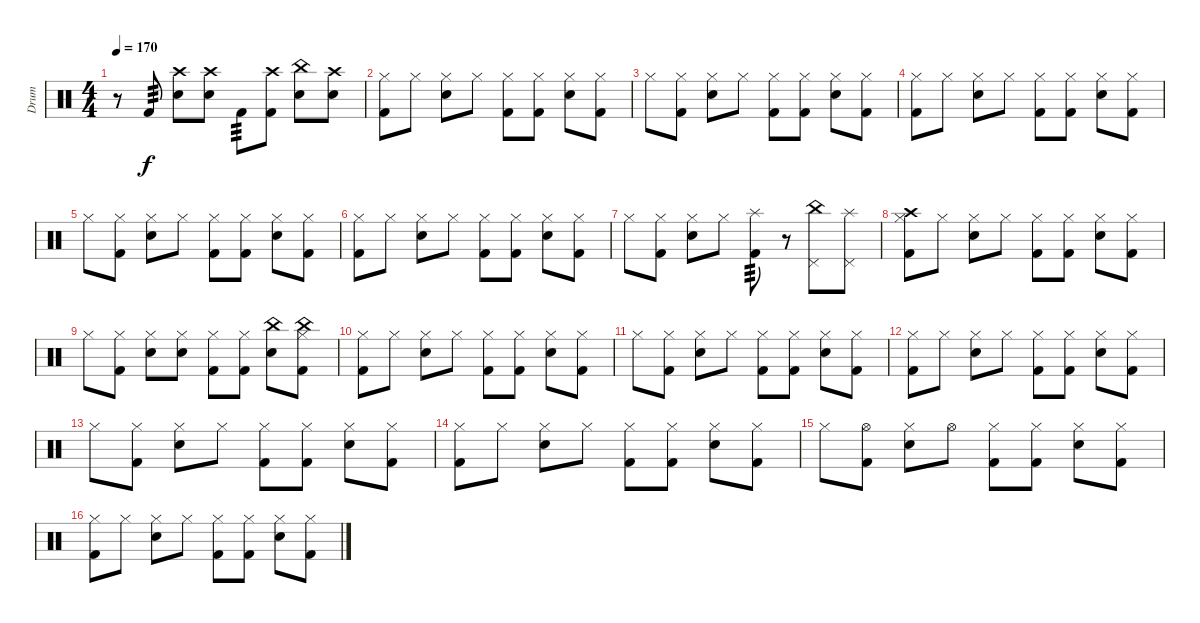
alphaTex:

\track ("Drum" "Drum") {instrument percussion}
\staff {score}
\articulation defaults
\ts (4 4)
\tempo 170
\clef neutral
\ks c
r.8{dy f} "Kick (hit) 2".8{tp 3} ("Crash high (hit)" "Electric Snare (hit)").8 ("Crash high (hit)" "Electric Snare (hit)").8 "Kick (hit) 2".8{tp 3} ("Crash high (hit)" "Kick (hit) 2").8 ("China (hit)" "Electric Snare (hit)").8 ("Crash high (hit)" "Electric Snare (hit)").8 |
("Hi-Hat (closed)" "Kick (hit) 2").8 "Hi-Hat (closed)".8 ("Hi-Hat (closed)" "Electric Snare (hit)").8 "Hi-Hat (closed)".8 ("Hi-Hat (closed)" "Kick (hit) 2").8 ("Hi-Hat (closed)" "Kick (hit) 2").8 ("Hi-Hat (closed)" "Electric Snare (hit)").8 ("Hi-Hat (closed)" "Kick (hit) 2").8 |
"Hi-Hat (closed)".8 ("Hi-Hat (closed)" "Kick (hit) 2").8 ("Hi-Hat (closed)" "Electric Snare (hit)").8 "Hi-Hat (closed)".8 ("Hi-Hat (closed)" "Kick (hit) 2").8 ("Hi-Hat (closed)" "Kick (hit) 2").8 ("Hi-Hat (closed)" "Electric Snare (hit)").8 ("Hi-Hat (closed)" "Kick (hit) 2").8 |
("Hi-Hat (closed)" "Kick (hit) 2").8 "Hi-Hat (closed)".8 ("Hi-Hat (closed)" "Electric Snare (hit)").8 "Hi-Hat (closed)".8 ("Hi-Hat (closed)" "Kick (hit) 2").8 ("Hi-Hat (closed)" "Kick (hit) 2").8 ("Hi-Hat (closed)" "Electric Snare (hit)").8 ("Hi-Hat (closed)" "Kick (hit) 2").8 |
"Hi-Hat (closed)".8 ("Hi-Hat (closed)" "Kick (hit) 2").8 ("Hi-Hat (closed)" "Electric Snare (hit)").8 "Hi-Hat (closed)".8 ("Hi-Hat (closed)" "Kick (hit) 2").8 ("Hi-Hat (closed)" "Kick (hit) 2").8 ("Hi-Hat (closed)" "Electric Snare (hit)").8 ("Hi-Hat (closed)" "Kick (hit) 2").8 |
("Hi-Hat (closed)" "Kick (hit) 2").8 "Hi-Hat (closed)".8 ("Hi-Hat (closed)" "Electric Snare (hit)").8 "Hi-Hat (closed)".8 ("Hi-Hat (closed)" "Kick (hit) 2").8 ("Hi-Hat (closed)" "Kick (hit) 2").8 ("Hi-Hat (closed)" "Electric Snare (hit)").8 ("Hi-Hat (closed)" "Kick (hit) 2").8 |
"Hi-Hat (closed)".8 ("Hi-Hat (closed)" "Kick (hit) 2").8 ("Hi-Hat (closed)" "Electric Snare (hit)").8 "Hi-Hat (closed)".8 ("Splash (hit)" "Kick (hit) 2").8{tp 3} r.8 ("China (hit)" "Pedal Hi-Hat (hit)").8 ("Splash (hit)" "Pedal Hi-Hat (hit)").8 |
("Crash high (hit)" "Hi-Hat (closed)" "Kick (hit) 2").8 "Hi-Hat (closed)".8 ("Hi-Hat (closed)" "Electric Snare (hit)").8 "Hi-Hat (closed)".8 ("Hi-Hat (closed)" "Kick (hit) 2").8 ("Hi-Hat (closed)" "Kick (hit) 2").8 ("Hi-Hat (closed)" "Electric Snare (hit)").8 ("Hi-Hat (closed)" "Kick (hit) 2").8 |
"Hi-Hat (closed)".8 ("Hi-Hat (closed)" "Kick (hit) 2").8 ("Hi-Hat (closed)" "Electric Snare (hit)").8 ("Hi-Hat (closed)" "Electric Snare (hit)").8 ("Hi-Hat (closed)" "Kick (hit) 2").8 ("Hi-Hat (closed)" "Kick (hit) 2").8 ("China (hit)" "Electric Snare (hit)").8 ("China (hit)" "Hi-Hat (closed)" "Kick (hit) 2").8 |
("Hi-Hat (closed)" "Kick (hit) 2").8 "Hi-Hat (closed)".8 ("Hi-Hat (closed)" "Electric Snare (hit)").8 "Hi-Hat (closed)".8 ("Hi-Hat (closed)" "Kick (hit) 2").8 ("Hi-Hat (closed)" "Kick (hit) 2").8 ("Hi-Hat (closed)" "Electric Snare (hit)").8 ("Hi-Hat (closed)" "Kick (hit) 2").8 |
"Hi-Hat (closed)".8 ("Hi-Hat (closed)" "Kick (hit) 2").8 ("Hi-Hat (closed)" "Electric Snare (hit)").8 "Hi-Hat (closed)".8 ("Hi-Hat (closed)" "Kick (hit) 2").8 ("Hi-Hat (closed)" "Kick (hit) 2").8 ("Hi-Hat (closed)" "Electric Snare (hit)").8 ("Hi-Hat (closed)" "Kick (hit) 2").8 |
("Hi-Hat (closed)" "Kick (hit) 2").8 "Hi-Hat (closed)".8 ("Hi-Hat (closed)" "Electric Snare (hit)").8 "Hi-Hat (closed)".8 ("Hi-Hat (closed)" "Kick (hit) 2").8 ("Hi-Hat (closed)" "Kick (hit) 2").8 ("Hi-Hat (closed)" "Electric Snare (hit)").8 ("Hi-Hat (closed)" "Kick (hit) 2").8 |
"Hi-Hat (closed)".8 ("Hi-Hat (closed)" "Kick (hit) 2").8 ("Hi-Hat (closed)" "Electric Snare (hit)").8 "Hi-Hat (closed)".8 ("Hi-Hat (closed)" "Kick (hit) 2").8 ("Hi-Hat (closed)" "Kick (hit) 2").8 ("Hi-Hat (closed)" "Electric Snare (hit)").8 ("Hi-Hat (closed)" "Kick (hit) 2").8 |
("Hi-Hat (closed)" "Kick (hit) 2").8 "Hi-Hat (closed)".8 ("Hi-Hat (closed)" "Electric Snare (hit)").8 "Hi-Hat (closed)".8 ("Hi-Hat (closed)" "Kick (hit) 2").8 ("Hi-Hat (closed)" "Kick (hit) 2").8 ("Hi-Hat (closed)" "Electric Snare (hit)").8 ("Hi-Hat (closed)" "Kick (hit) 2").8 |
"Hi-Hat (closed)".8 ("Hi-Hat (open)" "Kick (hit) 2").8 ("Hi-Hat (closed)" "Electric Snare (hit)").8 "Hi-Hat (open)".8 ("Hi-Hat (closed)" "Kick (hit) 2").8 ("Hi-Hat (closed)" "Kick (hit) 2").8 ("Hi-Hat (closed)" "Electric Snare (hit)").8 ("Hi-Hat (closed)" "Kick (hit) 2").8 |
("Hi-Hat (closed)" "Kick (hit) 2").8 "Hi-Hat (closed)".8 ("Hi-Hat (closed)" "Electric Snare (hit)").8 "Hi-Hat (closed)".8 ("Hi-Hat (closed)" "Kick (hit) 2").8 ("Hi-Hat (closed)" "Kick (hit) 2").8 ("Hi-Hat (closed)" "Electric Snare (hit)").8 ("Hi-Hat (closed)" "Kick (hit) 2").8
